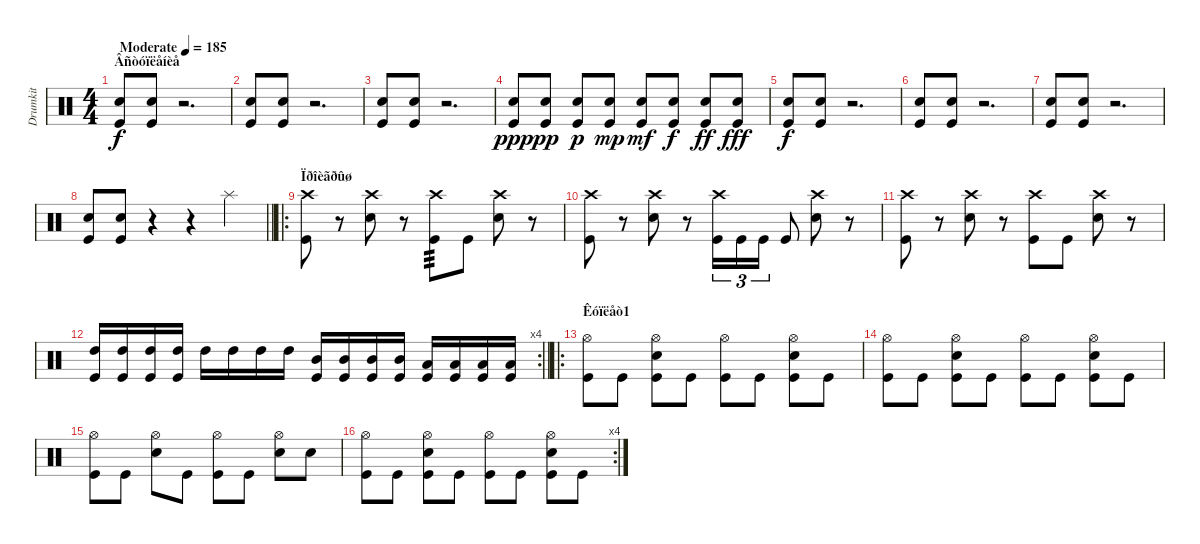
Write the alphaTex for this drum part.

\track ("Drumkit" "Drumkit") {instrument percussion}
\staff {score}
\articulation defaults
\ts (4 4)
\section ("" "Âñòóïëåíèå")
\tempo (185 "Moderate")
\clef neutral
\ks c
("Snare (hit) 2" "Kick (hit)").8{dy f} ("Snare (hit) 2" "Kick (hit)").8 r.2{d} |
("Snare (hit) 2" "Kick (hit)").8 ("Snare (hit) 2" "Kick (hit)").8 r.2{d} |
("Snare (hit) 2" "Kick (hit)").8 ("Snare (hit) 2" "Kick (hit)").8 r.2{d} |
("Snare (hit) 2" "Kick (hit)").8{dy ppp} ("Snare (hit) 2" "Kick (hit)").8{dy pp} ("Snare (hit) 2" "Kick (hit)").8{dy p} ("Snare (hit) 2" "Kick (hit)").8{dy mp} ("Snare (hit) 2" "Kick (hit)").8{dy mf} ("Snare (hit) 2" "Kick (hit)").8{dy f} ("Snare (hit) 2" "Kick (hit)").8{dy ff} ("Snare (hit) 2" "Kick (hit)").8{dy fff} |
("Snare (hit) 2" "Kick (hit)").8{dy f} ("Snare (hit) 2" "Kick (hit)").8 r.2{d} |
("Snare (hit) 2" "Kick (hit)").8 ("Snare (hit) 2" "Kick (hit)").8 r.2{d} |
("Snare (hit) 2" "Kick (hit)").8 ("Snare (hit) 2" "Kick (hit)").8 r.2{d} |
\barLineRight lightlight
("Snare (hit) 2" "Kick (hit)").8 ("Snare (hit) 2" "Kick (hit)").8 r.4 r.4 "Splash (hit)".4 |
\ro
\section ("" "Ïðîèãðûø")
("Kick (hit)" "Crash high (hit)").8 r.8 ("Snare (hit) 2" "Crash high (hit)").8 r.8 ("Kick (hit)" "Crash high (hit)").8{tp 3} "Kick (hit)".8 ("Snare (hit) 2" "Crash high (hit)").8 r.8 |
("Kick (hit)" "Crash high (hit)").8 r.8 ("Snare (hit) 2" "Crash high (hit)").8 r.8 ("Kick (hit)" "Crash high (hit)").16{tu (3 2)} "Kick (hit)".16{tu (3 2)} "Kick (hit)".16{tu (3 2)} "Kick (hit)".8 ("Snare (hit) 2" "Crash high (hit)").8 r.8 |
("Kick (hit)" "Crash high (hit)").8 r.8 ("Snare (hit) 2" "Crash high (hit)").8 r.8 ("Kick (hit)" "Crash high (hit)").8 "Kick (hit)".8 ("Snare (hit) 2" "Crash high (hit)").8 r.8 |
\rc 4
\barLineRight lightlight
("High Tom (hit)" "Kick (hit)").16 ("High Tom (hit)" "Kick (hit)").16 ("High Tom (hit)" "Kick (hit)").16 ("High Tom (hit)" "Kick (hit)").16 "High Tom (hit)".16 "High Tom (hit)".16 "High Tom (hit)".16 "High Tom (hit)".16 ("Mid Tom (hit)" "Kick (hit)").16 ("Mid Tom (hit)" "Kick (hit)").16 ("Mid Tom (hit)" "Kick (hit)").16 ("Mid Tom (hit)" "Kick (hit)").16 ("Low Tom (hit)" "Kick (hit)").16 ("Low Tom (hit)" "Kick (hit)").16 ("Low Tom (hit)" "Kick (hit)").16 ("Low Tom (hit)" "Kick (hit)").16 |
\ro
\section ("" "Êóïëåò1")
("Hi-Hat (open)" "Kick (hit)").8 "Kick (hit)".8 ("Hi-Hat (open)" "Snare (hit) 2" "Kick (hit)").8 "Kick (hit)".8 ("Hi-Hat (open)" "Kick (hit)").8 "Kick (hit)".8 ("Hi-Hat (open)" "Snare (hit) 2" "Kick (hit)").8 "Kick (hit)".8 |
("Hi-Hat (open)" "Kick (hit)").8 "Kick (hit)".8 ("Hi-Hat (open)" "Snare (hit) 2" "Kick (hit)").8 "Kick (hit)".8 ("Hi-Hat (open)" "Kick (hit)").8 "Kick (hit)".8 ("Hi-Hat (open)" "Snare (hit) 2" "Kick (hit)").8 "Kick (hit)".8 |
("Kick (hit)" "Hi-Hat (open)").8 "Kick (hit)".8 ("Snare (hit) 2" "Hi-Hat (open)").8 "Kick (hit)".8 ("Kick (hit)" "Hi-Hat (open)").8 "Kick (hit)".8 ("Snare (hit) 2" "Hi-Hat (open)").8 "Snare (hit) 2".8 |
\rc 4
("Hi-Hat (open)" "Kick (hit)").8 "Kick (hit)".8 ("Hi-Hat (open)" "Snare (hit) 2" "Kick (hit)").8 "Kick (hit)".8 ("Hi-Hat (open)" "Kick (hit)").8 "Kick (hit)".8 ("Hi-Hat (open)" "Snare (hit) 2" "Kick (hit)").8 "Kick (hit)".8
